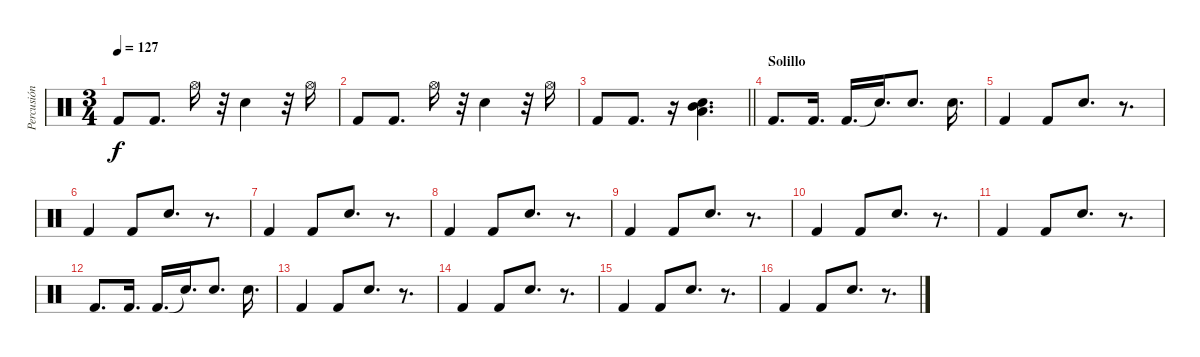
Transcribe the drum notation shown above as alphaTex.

\track ("Percusión" "Percusión") {instrument percussion}
\staff {score}
\articulation defaults
\ts (3 4)
\tempo 127
\clef neutral
\ks c "Kick (hit) 2".8{dy f} "Kick (hit) 2".8{d} "Hi-Hat (open)".16
r.32 "Snare (hit) 2".4 r.32 "Hi-Hat (open)".16 |
"Kick (hit) 2".8 "Kick (hit) 2".8{d} "Hi-Hat (open)".16 r.32 "Snare (hit) 2".4 r.32 "Hi-Hat (open)".16 |
\barLineRight lightlight "Kick (hit) 2".8 "Kick (hit) 2".8{d}
r.16 ("Mid Tom (hit)" "Low Tom (hit)" "Snare (hit) 2").4{d} |
\section ("" "Solillo")
"Kick (hit) 2".8{d volume 11} "Kick (hit) 2".16{d} "Kick (hit) 2".16{d} "Snare (hit) 2"{t}.16{d} "Snare (hit) 2".8{d} "Snare (hit) 2".16{d} |
"Kick (hit) 2".4 "Kick (hit) 2".8 "Snare (hit) 2".8{d} r.8{d} |
"Kick (hit) 2".4 "Kick (hit) 2".8 "Snare (hit) 2".8{d} r.8{d} |
"Kick (hit) 2".4 "Kick (hit) 2".8 "Snare (hit) 2".8{d} r.8{d} |
"Kick (hit) 2".4 "Kick (hit) 2".8 "Snare (hit) 2".8{d} r.8{d} |
"Kick (hit) 2".4 "Kick (hit) 2".8 "Snare (hit) 2".8{d} r.8{d} |
"Kick (hit) 2".4 "Kick (hit) 2".8 "Snare (hit) 2".8{d} r.8{d} |
"Kick (hit) 2".4 "Kick (hit) 2".8 "Snare (hit) 2".8{d} r.8{d} |
"Kick (hit) 2".8{d} "Kick (hit) 2".16{d} "Kick (hit) 2".16{d} "Snare (hit) 2"{t}.16{d} "Snare (hit) 2".8{d} "Snare (hit) 2".16{d} |
"Kick (hit) 2".4 "Kick (hit) 2".8 "Snare (hit) 2".8{d} r.8{d} |
"Kick (hit) 2".4 "Kick (hit) 2".8 "Snare (hit) 2".8{d} r.8{d} |
"Kick (hit) 2".4 "Kick (hit) 2".8 "Snare (hit) 2".8{d} r.8{d} |
"Kick (hit) 2".4 "Kick (hit) 2".8 "Snare (hit) 2".8{d} r.8{d}
